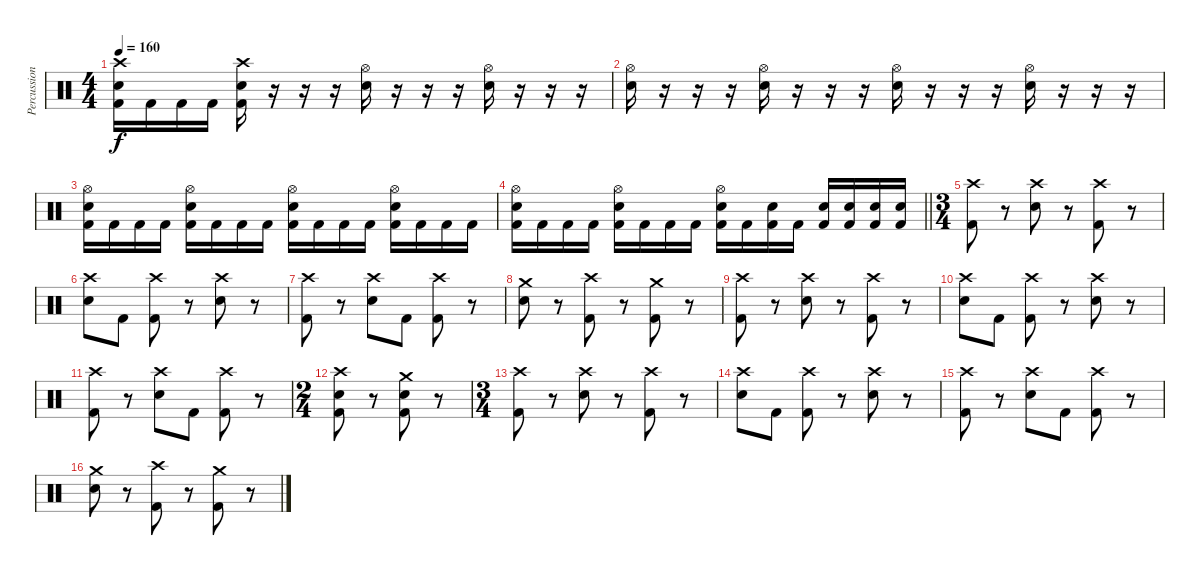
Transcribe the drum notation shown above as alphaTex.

\track ("Percussion" "Percussion") {instrument percussion}
\staff {score}
\articulation defaults
\ts (4 4)
\tempo 160
\clef neutral
\ks c
("Crash high (hit)" "Snare (hit) 2" "Kick (hit) 2").16{dy f} "Kick (hit) 2".16 "Kick (hit) 2".16 "Kick (hit) 2".16 ("Crash high (hit)" "Snare (hit) 2" "Kick (hit) 2").16 r.16 r.16 r.16 ("Hi-Hat (open)" "Snare (hit) 2").16 r.16 r.16 r.16 ("Hi-Hat (open)" "Snare (hit) 2").16 r.16 r.16 r.16 |
("Hi-Hat (open)" "Snare (hit) 2").16 r.16 r.16 r.16 ("Hi-Hat (open)" "Snare (hit) 2").16 r.16 r.16 r.16 ("Hi-Hat (open)" "Snare (hit) 2").16 r.16 r.16 r.16 ("Hi-Hat (open)" "Snare (hit) 2").16 r.16 r.16 r.16 |
("Hi-Hat (open)" "Snare (hit) 2" "Kick (hit) 2").16 "Kick (hit) 2".16 "Kick (hit) 2".16 "Kick (hit) 2".16 ("Hi-Hat (open)" "Snare (hit) 2" "Kick (hit) 2").16 "Kick (hit) 2".16 "Kick (hit) 2".16 "Kick (hit) 2".16 ("Hi-Hat (open)" "Snare (hit) 2" "Kick (hit) 2").16 "Kick (hit) 2".16 "Kick (hit) 2".16 "Kick (hit) 2".16 ("Hi-Hat (open)" "Snare (hit) 2" "Kick (hit) 2").16 "Kick (hit) 2".16 "Kick (hit) 2".16 "Kick (hit) 2".16 |
\barLineRight lightlight
("Hi-Hat (open)" "Snare (hit) 2" "Kick (hit) 2").16 "Kick (hit) 2".16 "Kick (hit) 2".16 "Kick (hit) 2".16 ("Hi-Hat (open)" "Snare (hit) 2" "Kick (hit) 2").16 "Kick (hit) 2".16 "Kick (hit) 2".16 "Kick (hit) 2".16 ("Hi-Hat (open)" "Snare (hit) 2" "Kick (hit) 2").16 "Kick (hit) 2".16 ("Snare (hit) 2" "Kick (hit) 2").16 "Kick (hit) 2".16 ("Snare (hit) 2" "Kick (hit) 2").16 ("Snare (hit) 2" "Kick (hit) 2").16 ("Snare (hit) 2" "Kick (hit) 2").16 ("Snare (hit) 2" "Kick (hit) 2").16 |
\ts (3 4)
\section ("" "")
("Crash high (hit)" "Kick (hit) 2").8 r.8 ("Crash high (hit)" "Snare (hit) 2").8 r.8 ("Crash high (hit)" "Kick (hit) 2").8 r.8 |
("Crash high (hit)" "Snare (hit) 2").8 "Kick (hit) 2".8 ("Crash high (hit)" "Kick (hit) 2").8 r.8 ("Crash high (hit)" "Snare (hit) 2").8 r.8 |
("Crash high (hit)" "Kick (hit) 2").8 r.8 ("Crash high (hit)" "Snare (hit) 2").8 "Kick (hit) 2".8 ("Crash high (hit)" "Kick (hit) 2").8 r.8 |
("Crash medium (hit)" "Snare (hit) 2").8 r.8 ("Crash high (hit)" "Kick (hit) 2").8 r.8 ("Crash medium (hit)" "Kick (hit) 2").8 r.8 |
("Crash high (hit)" "Kick (hit) 2").8 r.8 ("Crash high (hit)" "Snare (hit) 2").8 r.8 ("Crash high (hit)" "Kick (hit) 2").8 r.8 |
("Crash high (hit)" "Snare (hit) 2").8 "Kick (hit) 2".8 ("Crash high (hit)" "Kick (hit) 2").8 r.8 ("Crash high (hit)" "Snare (hit) 2").8 r.8 |
("Crash high (hit)" "Kick (hit) 2").8 r.8 ("Crash high (hit)" "Snare (hit) 2").8 "Kick (hit) 2".8 ("Crash high (hit)" "Kick (hit) 2").8 r.8 |
\ts (2 4)
("Crash high (hit)" "Snare (hit) 2" "Kick (hit) 2").8 r.8 ("Crash medium (hit)" "Snare (hit) 2" "Kick (hit) 2").8 r.8 |
\ts (3 4)
("Crash high (hit)" "Kick (hit) 2").8 r.8 ("Crash high (hit)" "Snare (hit) 2").8 r.8 ("Crash high (hit)" "Kick (hit) 2").8 r.8 |
("Crash high (hit)" "Snare (hit) 2").8 "Kick (hit) 2".8 ("Crash high (hit)" "Kick (hit) 2").8 r.8 ("Crash high (hit)" "Snare (hit) 2").8 r.8 |
("Crash high (hit)" "Kick (hit) 2").8 r.8 ("Crash high (hit)" "Snare (hit) 2").8 "Kick (hit) 2".8 ("Crash high (hit)" "Kick (hit) 2").8 r.8 |
("Crash medium (hit)" "Snare (hit) 2").8 r.8 ("Crash high (hit)" "Kick (hit) 2").8 r.8 ("Crash medium (hit)" "Kick (hit) 2").8 r.8
